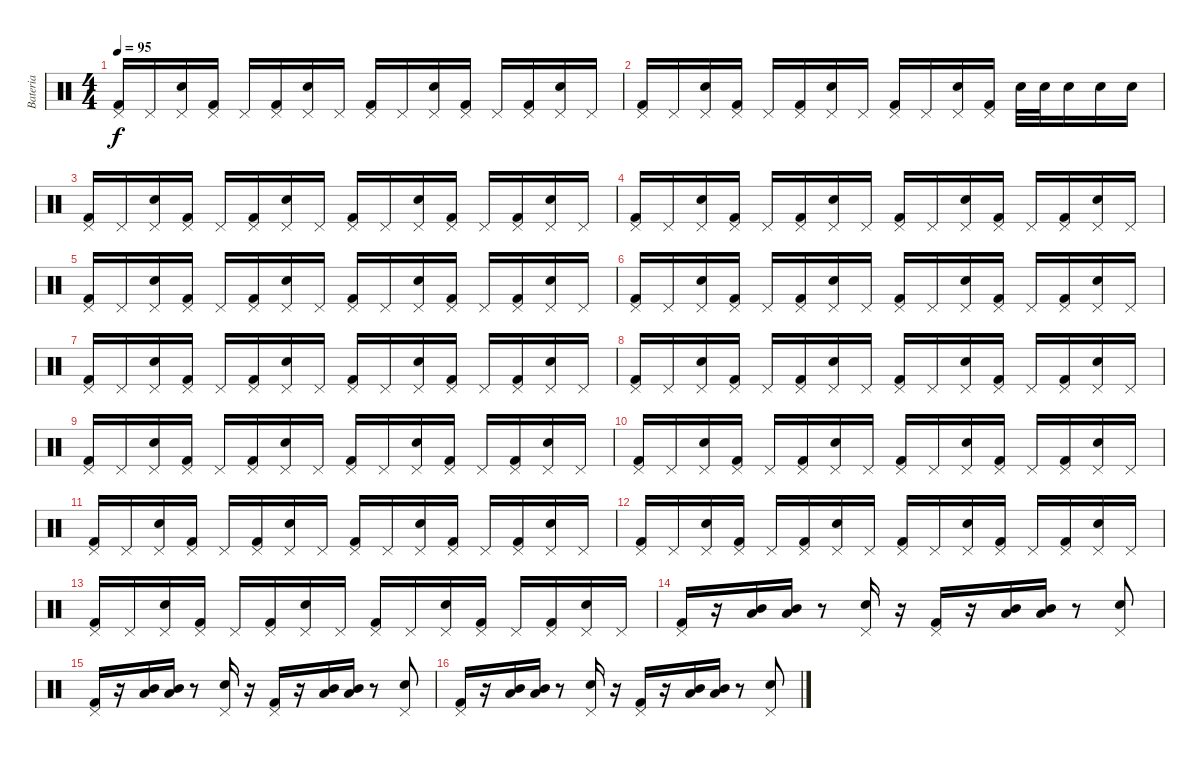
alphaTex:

\track ("Bateria" "Bateria") {instrument percussion}
\staff {score}
\articulation defaults
\ts (4 4)
\tempo 95
\clef neutral
\ks c
("Pedal Hi-Hat (hit)" "Kick (hit) 2").16{dy f} "Pedal Hi-Hat (hit)".16 ("Pedal Hi-Hat (hit)" "Electric Snare (hit)").16 ("Pedal Hi-Hat (hit)" "Kick (hit) 2").16 "Pedal Hi-Hat (hit)".16 ("Pedal Hi-Hat (hit)" "Kick (hit) 2").16 ("Pedal Hi-Hat (hit)" "Electric Snare (hit)").16 "Pedal Hi-Hat (hit)".16 ("Pedal Hi-Hat (hit)" "Kick (hit) 2").16 "Pedal Hi-Hat (hit)".16 ("Pedal Hi-Hat (hit)" "Electric Snare (hit)").16 ("Pedal Hi-Hat (hit)" "Kick (hit) 2").16 "Pedal Hi-Hat (hit)".16 ("Pedal Hi-Hat (hit)" "Kick (hit) 2").16 ("Pedal Hi-Hat (hit)" "Electric Snare (hit)").16 "Pedal Hi-Hat (hit)".16 |
("Pedal Hi-Hat (hit)" "Kick (hit) 2").16 "Pedal Hi-Hat (hit)".16 ("Pedal Hi-Hat (hit)" "Electric Snare (hit)").16 ("Pedal Hi-Hat (hit)" "Kick (hit) 2").16 "Pedal Hi-Hat (hit)".16 ("Pedal Hi-Hat (hit)" "Kick (hit) 2").16 ("Pedal Hi-Hat (hit)" "Electric Snare (hit)").16 "Pedal Hi-Hat (hit)".16 ("Pedal Hi-Hat (hit)" "Kick (hit) 2").16 "Pedal Hi-Hat (hit)".16 ("Pedal Hi-Hat (hit)" "Electric Snare (hit)").16 ("Pedal Hi-Hat (hit)" "Kick (hit) 2").16 "Electric Snare (hit)".32 "Electric Snare (hit)".32 "Electric Snare (hit)".16 "Electric Snare (hit)".16 "Electric Snare (hit)".16 |
("Pedal Hi-Hat (hit)" "Kick (hit) 2").16 "Pedal Hi-Hat (hit)".16 ("Pedal Hi-Hat (hit)" "Electric Snare (hit)").16 ("Pedal Hi-Hat (hit)" "Kick (hit) 2").16 "Pedal Hi-Hat (hit)".16 ("Pedal Hi-Hat (hit)" "Kick (hit) 2").16 ("Pedal Hi-Hat (hit)" "Electric Snare (hit)").16 "Pedal Hi-Hat (hit)".16 ("Pedal Hi-Hat (hit)" "Kick (hit) 2").16 "Pedal Hi-Hat (hit)".16 ("Pedal Hi-Hat (hit)" "Electric Snare (hit)").16 ("Pedal Hi-Hat (hit)" "Kick (hit) 2").16 "Pedal Hi-Hat (hit)".16 ("Pedal Hi-Hat (hit)" "Kick (hit) 2").16 ("Pedal Hi-Hat (hit)" "Electric Snare (hit)").16 "Pedal Hi-Hat (hit)".16 |
("Pedal Hi-Hat (hit)" "Kick (hit) 2").16 "Pedal Hi-Hat (hit)".16 ("Pedal Hi-Hat (hit)" "Electric Snare (hit)").16 ("Pedal Hi-Hat (hit)" "Kick (hit) 2").16 "Pedal Hi-Hat (hit)".16 ("Pedal Hi-Hat (hit)" "Kick (hit) 2").16 ("Pedal Hi-Hat (hit)" "Electric Snare (hit)").16 "Pedal Hi-Hat (hit)".16 ("Pedal Hi-Hat (hit)" "Kick (hit) 2").16 "Pedal Hi-Hat (hit)".16 ("Pedal Hi-Hat (hit)" "Electric Snare (hit)").16 ("Pedal Hi-Hat (hit)" "Kick (hit) 2").16 "Pedal Hi-Hat (hit)".16 ("Pedal Hi-Hat (hit)" "Kick (hit) 2").16 ("Pedal Hi-Hat (hit)" "Electric Snare (hit)").16 "Pedal Hi-Hat (hit)".16 |
("Pedal Hi-Hat (hit)" "Kick (hit) 2").16 "Pedal Hi-Hat (hit)".16 ("Pedal Hi-Hat (hit)" "Electric Snare (hit)").16 ("Pedal Hi-Hat (hit)" "Kick (hit) 2").16 "Pedal Hi-Hat (hit)".16 ("Pedal Hi-Hat (hit)" "Kick (hit) 2").16 ("Pedal Hi-Hat (hit)" "Electric Snare (hit)").16 "Pedal Hi-Hat (hit)".16 ("Pedal Hi-Hat (hit)" "Kick (hit) 2").16 "Pedal Hi-Hat (hit)".16 ("Pedal Hi-Hat (hit)" "Electric Snare (hit)").16 ("Pedal Hi-Hat (hit)" "Kick (hit) 2").16 "Pedal Hi-Hat (hit)".16 ("Pedal Hi-Hat (hit)" "Kick (hit) 2").16 ("Pedal Hi-Hat (hit)" "Electric Snare (hit)").16 "Pedal Hi-Hat (hit)".16 |
("Pedal Hi-Hat (hit)" "Kick (hit) 2").16 "Pedal Hi-Hat (hit)".16 ("Pedal Hi-Hat (hit)" "Electric Snare (hit)").16 ("Pedal Hi-Hat (hit)" "Kick (hit) 2").16 "Pedal Hi-Hat (hit)".16 ("Pedal Hi-Hat (hit)" "Kick (hit) 2").16 ("Pedal Hi-Hat (hit)" "Electric Snare (hit)").16 "Pedal Hi-Hat (hit)".16 ("Pedal Hi-Hat (hit)" "Kick (hit) 2").16 "Pedal Hi-Hat (hit)".16 ("Pedal Hi-Hat (hit)" "Electric Snare (hit)").16 ("Pedal Hi-Hat (hit)" "Kick (hit) 2").16 "Pedal Hi-Hat (hit)".16 ("Pedal Hi-Hat (hit)" "Kick (hit) 2").16 ("Pedal Hi-Hat (hit)" "Electric Snare (hit)").16 "Pedal Hi-Hat (hit)".16 |
("Pedal Hi-Hat (hit)" "Kick (hit) 2").16 "Pedal Hi-Hat (hit)".16 ("Pedal Hi-Hat (hit)" "Electric Snare (hit)").16 ("Pedal Hi-Hat (hit)" "Kick (hit) 2").16 "Pedal Hi-Hat (hit)".16 ("Pedal Hi-Hat (hit)" "Kick (hit) 2").16 ("Pedal Hi-Hat (hit)" "Electric Snare (hit)").16 "Pedal Hi-Hat (hit)".16 ("Pedal Hi-Hat (hit)" "Kick (hit) 2").16 "Pedal Hi-Hat (hit)".16 ("Pedal Hi-Hat (hit)" "Electric Snare (hit)").16 ("Pedal Hi-Hat (hit)" "Kick (hit) 2").16 "Pedal Hi-Hat (hit)".16 ("Pedal Hi-Hat (hit)" "Kick (hit) 2").16 ("Pedal Hi-Hat (hit)" "Electric Snare (hit)").16 "Pedal Hi-Hat (hit)".16 |
("Pedal Hi-Hat (hit)" "Kick (hit) 2").16 "Pedal Hi-Hat (hit)".16 ("Pedal Hi-Hat (hit)" "Electric Snare (hit)").16 ("Pedal Hi-Hat (hit)" "Kick (hit) 2").16 "Pedal Hi-Hat (hit)".16 ("Pedal Hi-Hat (hit)" "Kick (hit) 2").16 ("Pedal Hi-Hat (hit)" "Electric Snare (hit)").16 "Pedal Hi-Hat (hit)".16 ("Pedal Hi-Hat (hit)" "Kick (hit) 2").16 "Pedal Hi-Hat (hit)".16 ("Pedal Hi-Hat (hit)" "Electric Snare (hit)").16 ("Pedal Hi-Hat (hit)" "Kick (hit) 2").16 "Pedal Hi-Hat (hit)".16 ("Pedal Hi-Hat (hit)" "Kick (hit) 2").16 ("Pedal Hi-Hat (hit)" "Electric Snare (hit)").16 "Pedal Hi-Hat (hit)".16 |
("Pedal Hi-Hat (hit)" "Kick (hit) 2").16 "Pedal Hi-Hat (hit)".16 ("Pedal Hi-Hat (hit)" "Electric Snare (hit)").16 ("Pedal Hi-Hat (hit)" "Kick (hit) 2").16 "Pedal Hi-Hat (hit)".16 ("Pedal Hi-Hat (hit)" "Kick (hit) 2").16 ("Pedal Hi-Hat (hit)" "Electric Snare (hit)").16 "Pedal Hi-Hat (hit)".16 ("Pedal Hi-Hat (hit)" "Kick (hit) 2").16 "Pedal Hi-Hat (hit)".16 ("Pedal Hi-Hat (hit)" "Electric Snare (hit)").16 ("Pedal Hi-Hat (hit)" "Kick (hit) 2").16 "Pedal Hi-Hat (hit)".16 ("Pedal Hi-Hat (hit)" "Kick (hit) 2").16 ("Pedal Hi-Hat (hit)" "Electric Snare (hit)").16 "Pedal Hi-Hat (hit)".16 |
("Pedal Hi-Hat (hit)" "Kick (hit) 2").16 "Pedal Hi-Hat (hit)".16 ("Pedal Hi-Hat (hit)" "Electric Snare (hit)").16 ("Pedal Hi-Hat (hit)" "Kick (hit) 2").16 "Pedal Hi-Hat (hit)".16 ("Pedal Hi-Hat (hit)" "Kick (hit) 2").16 ("Pedal Hi-Hat (hit)" "Electric Snare (hit)").16 "Pedal Hi-Hat (hit)".16 ("Pedal Hi-Hat (hit)" "Kick (hit) 2").16 "Pedal Hi-Hat (hit)".16 ("Pedal Hi-Hat (hit)" "Electric Snare (hit)").16 ("Pedal Hi-Hat (hit)" "Kick (hit) 2").16 "Pedal Hi-Hat (hit)".16 ("Pedal Hi-Hat (hit)" "Kick (hit) 2").16 ("Pedal Hi-Hat (hit)" "Electric Snare (hit)").16 "Pedal Hi-Hat (hit)".16 |
("Pedal Hi-Hat (hit)" "Kick (hit) 2").16 "Pedal Hi-Hat (hit)".16 ("Pedal Hi-Hat (hit)" "Electric Snare (hit)").16 ("Pedal Hi-Hat (hit)" "Kick (hit) 2").16 "Pedal Hi-Hat (hit)".16 ("Pedal Hi-Hat (hit)" "Kick (hit) 2").16 ("Pedal Hi-Hat (hit)" "Electric Snare (hit)").16 "Pedal Hi-Hat (hit)".16 ("Pedal Hi-Hat (hit)" "Kick (hit) 2").16 "Pedal Hi-Hat (hit)".16 ("Pedal Hi-Hat (hit)" "Electric Snare (hit)").16 ("Pedal Hi-Hat (hit)" "Kick (hit) 2").16 "Pedal Hi-Hat (hit)".16 ("Pedal Hi-Hat (hit)" "Kick (hit) 2").16 ("Pedal Hi-Hat (hit)" "Electric Snare (hit)").16 "Pedal Hi-Hat (hit)".16 |
("Pedal Hi-Hat (hit)" "Kick (hit) 2").16 "Pedal Hi-Hat (hit)".16 ("Pedal Hi-Hat (hit)" "Electric Snare (hit)").16 ("Pedal Hi-Hat (hit)" "Kick (hit) 2").16 "Pedal Hi-Hat (hit)".16 ("Pedal Hi-Hat (hit)" "Kick (hit) 2").16 ("Pedal Hi-Hat (hit)" "Electric Snare (hit)").16 "Pedal Hi-Hat (hit)".16 ("Pedal Hi-Hat (hit)" "Kick (hit) 2").16 "Pedal Hi-Hat (hit)".16 ("Pedal Hi-Hat (hit)" "Electric Snare (hit)").16 ("Pedal Hi-Hat (hit)" "Kick (hit) 2").16 "Pedal Hi-Hat (hit)".16 ("Pedal Hi-Hat (hit)" "Kick (hit) 2").16 ("Pedal Hi-Hat (hit)" "Electric Snare (hit)").16 "Pedal Hi-Hat (hit)".16 |
("Pedal Hi-Hat (hit)" "Kick (hit) 2").16 "Pedal Hi-Hat (hit)".16 ("Pedal Hi-Hat (hit)" "Electric Snare (hit)").16 ("Pedal Hi-Hat (hit)" "Kick (hit) 2").16 "Pedal Hi-Hat (hit)".16 ("Pedal Hi-Hat (hit)" "Kick (hit) 2").16 ("Pedal Hi-Hat (hit)" "Electric Snare (hit)").16 "Pedal Hi-Hat (hit)".16 ("Pedal Hi-Hat (hit)" "Kick (hit) 2").16 "Pedal Hi-Hat (hit)".16 ("Pedal Hi-Hat (hit)" "Electric Snare (hit)").16 ("Pedal Hi-Hat (hit)" "Kick (hit) 2").16 "Pedal Hi-Hat (hit)".16 ("Pedal Hi-Hat (hit)" "Kick (hit) 2").16 ("Pedal Hi-Hat (hit)" "Electric Snare (hit)").16 "Pedal Hi-Hat (hit)".16 |
("Pedal Hi-Hat (hit)" "Kick (hit) 2").16 r.16 ("Mid Tom (hit)" "Low Tom (hit)").16 ("Mid Tom (hit)" "Low Tom (hit)").16 r.8 ("Pedal Hi-Hat (hit)" "Electric Snare (hit)").16 r.16 ("Pedal Hi-Hat (hit)" "Kick (hit) 2").16 r.16 ("Mid Tom (hit)" "Low Tom (hit)").16 ("Mid Tom (hit)" "Low Tom (hit)").16 r.8 ("Pedal Hi-Hat (hit)" "Electric Snare (hit)").8 |
("Pedal Hi-Hat (hit)" "Kick (hit) 2").16 r.16 ("Mid Tom (hit)" "Low Tom (hit)").16 ("Mid Tom (hit)" "Low Tom (hit)").16 r.8 ("Pedal Hi-Hat (hit)" "Electric Snare (hit)").16 r.16 ("Pedal Hi-Hat (hit)" "Kick (hit) 2").16 r.16 ("Mid Tom (hit)" "Low Tom (hit)").16 ("Mid Tom (hit)" "Low Tom (hit)").16 r.8 ("Pedal Hi-Hat (hit)" "Electric Snare (hit)").8 |
("Pedal Hi-Hat (hit)" "Kick (hit) 2").16 r.16 ("Mid Tom (hit)" "Low Tom (hit)").16 ("Mid Tom (hit)" "Low Tom (hit)").16 r.8 ("Pedal Hi-Hat (hit)" "Electric Snare (hit)").16 r.16 ("Pedal Hi-Hat (hit)" "Kick (hit) 2").16 r.16 ("Mid Tom (hit)" "Low Tom (hit)").16 ("Mid Tom (hit)" "Low Tom (hit)").16 r.8 ("Pedal Hi-Hat (hit)" "Electric Snare (hit)").8
